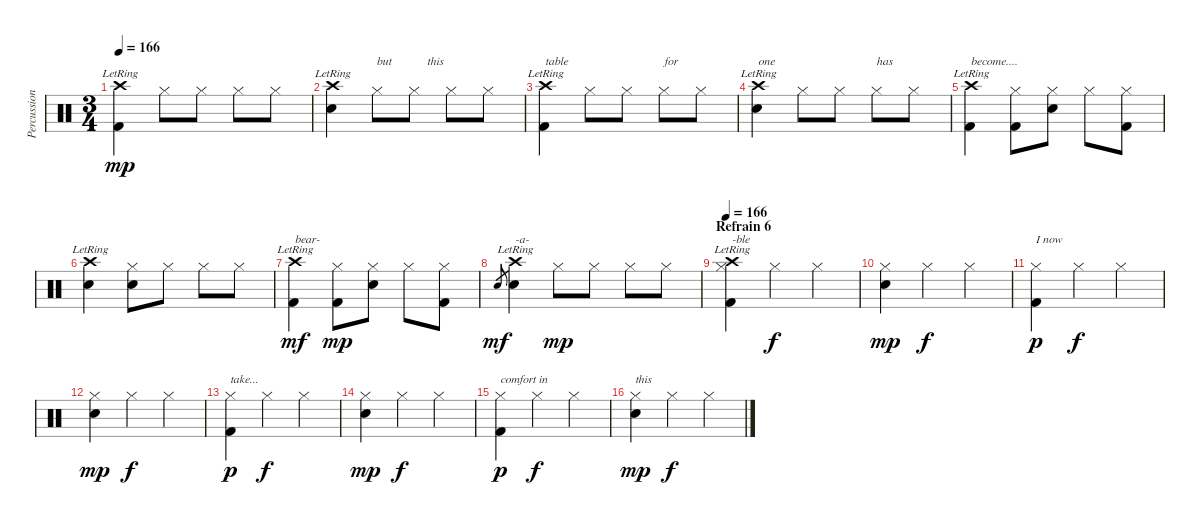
\track ("Percussion" "Percussion") {instrument percussion}
\staff {score}
\articulation defaults
\ts (3 4)
\tempo 166
\clef neutral
\ks c
("Crash high (hit)"{lr} "Kick (hit) 2").4{dy mp} "Hi-Hat (closed)".8 "Hi-Hat (closed)".8 "Hi-Hat (closed)".8 "Hi-Hat (closed)".8 |
("Crash high (hit)"{lr} "Electric Snare (hit)").4 "Hi-Hat (closed)".8{txt "but            this"} "Hi-Hat (closed)".8 "Hi-Hat (closed)".8 "Hi-Hat (closed)".8 |
("Crash high (hit)"{lr} "Kick (hit) 2").4{txt "table"} "Hi-Hat (closed)".8 "Hi-Hat (closed)".8 "Hi-Hat (closed)".8{txt "for"} "Hi-Hat (closed)".8 |
("Crash high (hit)"{lr} "Electric Snare (hit)").4{txt "one"} "Hi-Hat (closed)".8 "Hi-Hat (closed)".8 "Hi-Hat (closed)".8{txt "has"} "Hi-Hat (closed)".8 |
("Crash high (hit)"{lr} "Kick (hit) 2").4{txt "become...."} ("Hi-Hat (closed)" "Kick (hit) 2").8 ("Hi-Hat (closed)" "Electric Snare (hit)").8 "Hi-Hat (closed)".8 ("Hi-Hat (closed)" "Kick (hit) 2").8 |
("Crash high (hit)"{lr} "Electric Snare (hit)").4 ("Hi-Hat (closed)" "Electric Snare (hit)").8 "Hi-Hat (closed)".8 "Hi-Hat (closed)".8 "Hi-Hat (closed)".8 |
("Crash high (hit)"{lr} "Kick (hit) 2").4{txt "bear-" dy mf} ("Hi-Hat (closed)" "Kick (hit) 2").8{dy mp} ("Hi-Hat (closed)" "Electric Snare (hit)").8 "Hi-Hat (closed)".8 ("Hi-Hat (closed)" "Kick (hit) 2").8 |
"Electric Snare (hit)".8{gr dy mf} ("Crash high (hit)"{lr} "Electric Snare (hit)").4{txt "-a-"} "Hi-Hat (closed)".8{dy mp} "Hi-Hat (closed)".8 "Hi-Hat (closed)".8 "Hi-Hat (closed)".8 |
\section ("" "Refrain 6")
\tempo 166
("Hi-Hat (closed)" "Crash high (hit)"{lr} "Kick (hit) 2").4{txt "-ble"} "Hi-Hat (closed)".4{dy f} "Hi-Hat (closed)".4 |
("Hi-Hat (closed)" "Electric Snare (hit)").4{dy mp} "Hi-Hat (closed)".4{dy f} "Hi-Hat (closed)".4 |
("Hi-Hat (closed)" "Kick (hit) 2").4{txt "I now" dy p} "Hi-Hat (closed)".4{dy f} "Hi-Hat (closed)".4 |
("Hi-Hat (closed)" "Electric Snare (hit)").4{dy mp} "Hi-Hat (closed)".4{dy f} "Hi-Hat (closed)".4 |
("Hi-Hat (closed)" "Kick (hit) 2").4{txt "take..." dy p} "Hi-Hat (closed)".4{dy f} "Hi-Hat (closed)".4 |
("Hi-Hat (closed)" "Electric Snare (hit)").4{dy mp} "Hi-Hat (closed)".4{dy f} "Hi-Hat (closed)".4 |
("Hi-Hat (closed)" "Kick (hit) 2").4{txt "comfort in" dy p} "Hi-Hat (closed)".4{dy f} "Hi-Hat (closed)".4 |
("Hi-Hat (closed)" "Electric Snare (hit)").4{txt "this" dy mp} "Hi-Hat (closed)".4{dy f} "Hi-Hat (closed)".4
